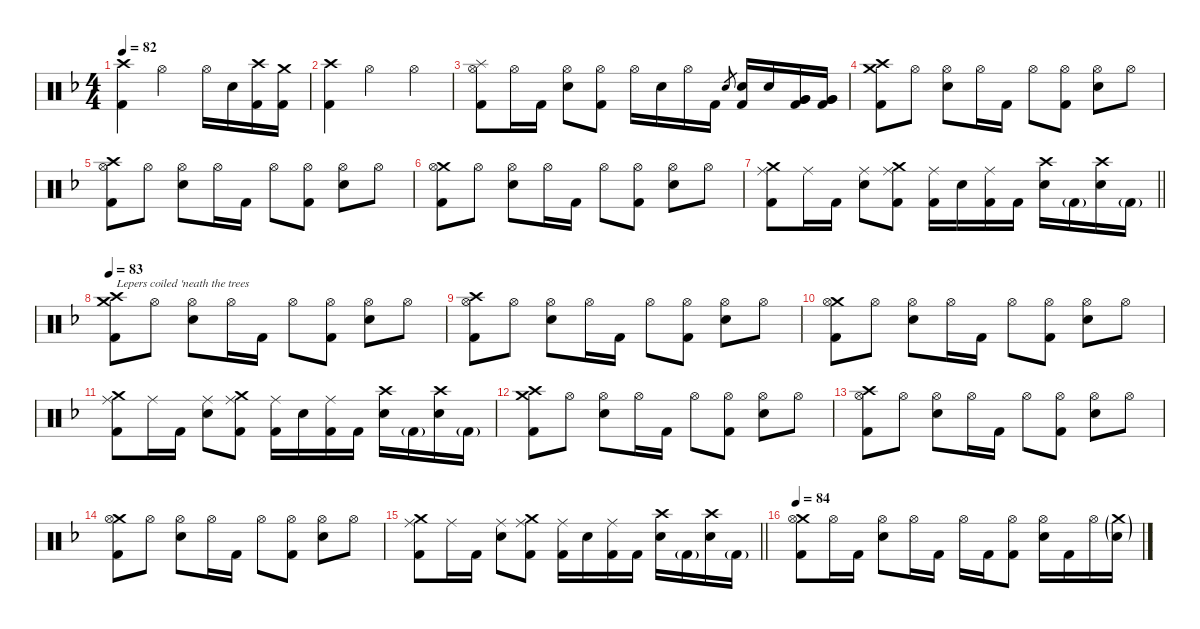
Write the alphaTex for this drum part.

\defaultSystemsLayout 4
\hideDynamics
\bracketExtendMode nobrackets
\singleTrackTrackNamePolicy hidden
\multiTrackTrackNamePolicy hidden
\otherSystemsTrackNameOrientation horizontal
\track ("Martin Lopez - Drums" "drm.") {defaultSystemsLayout 4 instrument percussion}
\staff {score}
\articulation defaults
\ts (4 4)
\tempo 82
\clef neutral
\ks dminor
("Crash high (hit)"{acc forcenatural} "Kick (hit) 2"{acc forcenatural}).4{dy f beam Down} "Hi-Hat (open)"{acc forcenatural}.2{beam Down} "Hi-Hat (open)"{acc forcenatural}.16{beam Down} "Snare (hit) 2"{acc forcenatural}.16{beam Down} ("Crash high (hit)"{acc forcenatural} "Kick (hit) 2"{acc forcenatural}).16{beam Down} ("Crash medium (hit)"{acc forcenatural} "Kick (hit) 2"{acc forcenatural}).16{beam Down} |
("Crash high (hit)"{acc forcenatural} "Kick (hit) 2"{acc forcenatural}).4{beam Down} "Hi-Hat (open)"{acc forcenatural}.2{beam Down} "Hi-Hat (open)"{acc forcenatural}.4{beam Down} |
("Splash (hit)"{acc forcenatural} "Hi-Hat (open)"{acc forcenatural} "Kick (hit) 2"{acc forcenatural}).8{beam Down} "Hi-Hat (open)"{acc forcenatural}.16{beam Down} "Kick (hit) 2"{acc forcenatural}.16{beam Down} ("Hi-Hat (open)"{acc forcenatural} "Snare (hit) 2"{acc forcenatural}).8{beam Down} ("Hi-Hat (open)"{acc forcenatural} "Kick (hit) 2"{acc forcenatural}).8{beam Down} "Hi-Hat (open)"{acc forcenatural}.16{beam Down} "Snare (hit) 2"{acc forcenatural}.16{beam Down} "Hi-Hat (open)"{acc forcenatural}.16{beam Down} "Kick (hit) 2"{acc forcenatural}.16{beam Down} "Electric Snare (hit)"{acc forcenatural}.8{gr dy mp beam Up} ("Snare (hit) 2"{acc forcenatural} "Kick (hit) 2"{acc forcenatural}).16{dy f beam Up} "Snare (hit) 2"{acc forcenatural}.16{beam Up} ("Very Low Tom (hit)"{acc forcenatural} "Very Low Tom (hit)"{acc forcenatural} "Kick (hit) 2"{acc forcenatural}).16{beam Up} ("Very Low Tom (hit)"{acc forcenatural} "Very Low Tom (hit)"{acc forcenatural} "Kick (hit) 2"{acc forcenatural}).16{beam Up} |
\tempo (82 hide)
("Crash high (hit)"{acc forcenatural} "Crash medium (hit)"{acc forcenatural} "Kick (hit) 2"{acc forcenatural}).8{beam Down} "Hi-Hat (open)"{acc forcenatural}.8{beam Down} ("Hi-Hat (open)"{acc forcenatural} "Snare (hit) 2"{acc forcenatural}).8{beam Down} "Hi-Hat (open)"{acc forcenatural}.16{beam Down} "Kick (hit) 2"{acc forcenatural}.16{beam Down} "Hi-Hat (open)"{acc forcenatural}.8{beam Down} ("Hi-Hat (open)"{acc forcenatural} "Kick (hit) 2"{acc forcenatural}).8{beam Down} ("Hi-Hat (open)"{acc forcenatural} "Snare (hit) 2"{acc forcenatural}).8{beam Down} "Hi-Hat (open)"{acc forcenatural}.8{beam Down} |
("Crash high (hit)"{acc forcenatural} "Hi-Hat (open)"{acc forcenatural} "Kick (hit) 2"{acc forcenatural}).8{beam Down} "Hi-Hat (open)"{acc forcenatural}.8{beam Down} ("Hi-Hat (open)"{acc forcenatural} "Snare (hit) 2"{acc forcenatural}).8{beam Down} "Hi-Hat (open)"{acc forcenatural}.16{beam Down} "Kick (hit) 2"{acc forcenatural}.16{beam Down} "Hi-Hat (open)"{acc forcenatural}.8{beam Down} ("Hi-Hat (open)"{acc forcenatural} "Kick (hit) 2"{acc forcenatural}).8{beam Down} ("Hi-Hat (open)"{acc forcenatural} "Snare (hit) 2"{acc forcenatural}).8{beam Down} "Hi-Hat (open)"{acc forcenatural}.8{beam Down} |
("Crash medium (hit)"{acc forcenatural} "Hi-Hat (open)"{acc forcenatural} "Kick (hit) 2"{acc forcenatural}).8{beam Down} "Hi-Hat (open)"{acc forcenatural}.8{beam Down} ("Hi-Hat (open)"{acc forcenatural} "Snare (hit) 2"{acc forcenatural}).8{beam Down} "Hi-Hat (open)"{acc forcenatural}.16{beam Down} "Kick (hit) 2"{acc forcenatural}.16{beam Down} "Hi-Hat (open)"{acc forcenatural}.8{beam Down} ("Hi-Hat (open)"{acc forcenatural} "Kick (hit) 2"{acc forcenatural}).8{beam Down} ("Hi-Hat (open)"{acc forcenatural} "Snare (hit) 2"{acc forcenatural}).8{beam Down} "Hi-Hat (open)"{acc forcenatural}.8{beam Down} |
\barLineRight lightlight
("Crash medium (hit)"{acc forcenatural} "Ride (middle)"{acc forcenatural} "Kick (hit) 2"{acc forcenatural}).8{beam Down} "Ride (middle)"{acc forcenatural}.16{beam Down} "Kick (hit) 2"{acc forcenatural}.16{beam Down} ("Ride (middle)"{acc forcenatural} "Snare (hit) 2"{acc forcenatural}).8{beam Down} ("Crash medium (hit)"{acc forcenatural} "Ride (middle)"{acc forcenatural} "Kick (hit) 2"{acc forcenatural}).8{beam Down} ("Ride (middle)"{acc forcenatural} "Kick (hit) 2"{acc forcenatural}).16{beam Down} "Snare (hit) 2"{acc forcenatural}.16{beam Down} ("Ride (middle)"{acc forcenatural} "Kick (hit) 2"{acc forcenatural}).16{beam Down} "Kick (hit) 2"{acc forcenatural}.16{beam Down} ("Crash high (hit)"{acc forcenatural} "Snare (hit) 2"{acc forcenatural}).16{beam Down} "Kick (hit) 2"{g acc forcenatural}.16{dy mf beam Down} ("Crash high (hit)"{acc forcenatural} "Snare (hit) 2"{acc forcenatural}).16{dy f beam Down} "Kick (hit) 2"{g acc forcenatural}.16{dy mf beam Down} |
\tempo 83
("Crash high (hit)"{acc forcenatural} "Crash medium (hit)"{acc forcenatural} "Kick (hit) 2"{acc forcenatural}).8{txt "Lepers coiled 'neath the trees" dy f beam Down} "Hi-Hat (open)"{acc forcenatural}.8{beam Down} ("Hi-Hat (open)"{acc forcenatural} "Snare (hit) 2"{acc forcenatural}).8{beam Down} "Hi-Hat (open)"{acc forcenatural}.16{beam Down} "Kick (hit) 2"{acc forcenatural}.16{beam Down} "Hi-Hat (open)"{acc forcenatural}.8{beam Down} ("Hi-Hat (open)"{acc forcenatural} "Kick (hit) 2"{acc forcenatural}).8{beam Down} ("Hi-Hat (open)"{acc forcenatural} "Snare (hit) 2"{acc forcenatural}).8{beam Down} "Hi-Hat (open)"{acc forcenatural}.8{beam Down} |
\tempo (82 hide)
("Crash high (hit)"{acc forcenatural} "Hi-Hat (open)"{acc forcenatural} "Kick (hit) 2"{acc forcenatural}).8{beam Down} "Hi-Hat (open)"{acc forcenatural}.8{beam Down} ("Hi-Hat (open)"{acc forcenatural} "Snare (hit) 2"{acc forcenatural}).8{beam Down} "Hi-Hat (open)"{acc forcenatural}.16{beam Down} "Kick (hit) 2"{acc forcenatural}.16{beam Down} "Hi-Hat (open)"{acc forcenatural}.8{beam Down} ("Hi-Hat (open)"{acc forcenatural} "Kick (hit) 2"{acc forcenatural}).8{beam Down} ("Hi-Hat (open)"{acc forcenatural} "Snare (hit) 2"{acc forcenatural}).8{beam Down} "Hi-Hat (open)"{acc forcenatural}.8{beam Down} |
\tempo (83 hide)
("Crash medium (hit)"{acc forcenatural} "Hi-Hat (open)"{acc forcenatural} "Kick (hit) 2"{acc forcenatural}).8{beam Down} "Hi-Hat (open)"{acc forcenatural}.8{beam Down} ("Hi-Hat (open)"{acc forcenatural} "Snare (hit) 2"{acc forcenatural}).8{beam Down} "Hi-Hat (open)"{acc forcenatural}.16{beam Down} "Kick (hit) 2"{acc forcenatural}.16{beam Down} "Hi-Hat (open)"{acc forcenatural}.8{beam Down} ("Hi-Hat (open)"{acc forcenatural} "Kick (hit) 2"{acc forcenatural}).8{beam Down} ("Hi-Hat (open)"{acc forcenatural} "Snare (hit) 2"{acc forcenatural}).8{beam Down} "Hi-Hat (open)"{acc forcenatural}.8{beam Down} |
\tempo (82 hide)
\tempo (83 0.99375 hide)
("Crash medium (hit)"{acc forcenatural} "Ride (middle)"{acc forcenatural} "Kick (hit) 2"{acc forcenatural}).8{beam Down} "Ride (middle)"{acc forcenatural}.16{beam Down} "Kick (hit) 2"{acc forcenatural}.16{beam Down} ("Ride (middle)"{acc forcenatural} "Snare (hit) 2"{acc forcenatural}).8{beam Down} ("Crash medium (hit)"{acc forcenatural} "Ride (middle)"{acc forcenatural} "Kick (hit) 2"{acc forcenatural}).8{beam Down} ("Ride (middle)"{acc forcenatural} "Kick (hit) 2"{acc forcenatural}).16{beam Down} "Snare (hit) 2"{acc forcenatural}.16{beam Down} ("Ride (middle)"{acc forcenatural} "Kick (hit) 2"{acc forcenatural}).16{beam Down} "Kick (hit) 2"{acc forcenatural}.16{beam Down} ("Crash high (hit)"{acc forcenatural} "Snare (hit) 2"{acc forcenatural}).16{beam Down} "Kick (hit) 2"{g acc forcenatural}.16{dy mf beam Down} ("Crash high (hit)"{acc forcenatural} "Snare (hit) 2"{acc forcenatural}).16{dy f beam Down} "Kick (hit) 2"{g acc forcenatural}.16{dy mf beam Down} |
("Crash high (hit)"{acc forcenatural} "Crash medium (hit)"{acc forcenatural} "Kick (hit) 2"{acc forcenatural}).8{dy f beam Down} "Hi-Hat (open)"{acc forcenatural}.8{beam Down} ("Hi-Hat (open)"{acc forcenatural} "Snare (hit) 2"{acc forcenatural}).8{beam Down} "Hi-Hat (open)"{acc forcenatural}.16{beam Down} "Kick (hit) 2"{acc forcenatural}.16{beam Down} "Hi-Hat (open)"{acc forcenatural}.8{beam Down} ("Hi-Hat (open)"{acc forcenatural} "Kick (hit) 2"{acc forcenatural}).8{beam Down} ("Hi-Hat (open)"{acc forcenatural} "Snare (hit) 2"{acc forcenatural}).8{beam Down} "Hi-Hat (open)"{acc forcenatural}.8{beam Down} |
\tempo (82 hide)
("Crash high (hit)"{acc forcenatural} "Hi-Hat (open)"{acc forcenatural} "Kick (hit) 2"{acc forcenatural}).8{beam Down} "Hi-Hat (open)"{acc forcenatural}.8{beam Down} ("Hi-Hat (open)"{acc forcenatural} "Snare (hit) 2"{acc forcenatural}).8{beam Down} "Hi-Hat (open)"{acc forcenatural}.16{beam Down} "Kick (hit) 2"{acc forcenatural}.16{beam Down} "Hi-Hat (open)"{acc forcenatural}.8{beam Down} ("Hi-Hat (open)"{acc forcenatural} "Kick (hit) 2"{acc forcenatural}).8{beam Down} ("Hi-Hat (open)"{acc forcenatural} "Snare (hit) 2"{acc forcenatural}).8{beam Down} "Hi-Hat (open)"{acc forcenatural}.8{beam Down} |
\tempo (83 hide)
("Crash medium (hit)"{acc forcenatural} "Hi-Hat (open)"{acc forcenatural} "Kick (hit) 2"{acc forcenatural}).8{beam Down} "Hi-Hat (open)"{acc forcenatural}.8{beam Down} ("Hi-Hat (open)"{acc forcenatural} "Snare (hit) 2"{acc forcenatural}).8{beam Down} "Hi-Hat (open)"{acc forcenatural}.16{beam Down} "Kick (hit) 2"{acc forcenatural}.16{beam Down} "Hi-Hat (open)"{acc forcenatural}.8{beam Down} ("Hi-Hat (open)"{acc forcenatural} "Kick (hit) 2"{acc forcenatural}).8{beam Down} ("Hi-Hat (open)"{acc forcenatural} "Snare (hit) 2"{acc forcenatural}).8{beam Down} "Hi-Hat (open)"{acc forcenatural}.8{beam Down} |
\tempo (82 hide)
\barLineRight lightlight
("Crash medium (hit)"{acc forcenatural} "Ride (middle)"{acc forcenatural} "Kick (hit) 2"{acc forcenatural}).8{beam Down} "Ride (middle)"{acc forcenatural}.16{beam Down} "Kick (hit) 2"{acc forcenatural}.16{beam Down} ("Ride (middle)"{acc forcenatural} "Snare (hit) 2"{acc forcenatural}).8{beam Down} ("Crash medium (hit)"{acc forcenatural} "Ride (middle)"{acc forcenatural} "Kick (hit) 2"{acc forcenatural}).8{beam Down} ("Ride (middle)"{acc forcenatural} "Kick (hit) 2"{acc forcenatural}).16{beam Down} "Snare (hit) 2"{acc forcenatural}.16{beam Down} ("Ride (middle)"{acc forcenatural} "Kick (hit) 2"{acc forcenatural}).16{beam Down} "Kick (hit) 2"{acc forcenatural}.16{beam Down} ("Crash high (hit)"{acc forcenatural} "Snare (hit) 2"{acc forcenatural}).16{beam Down} "Kick (hit) 2"{g acc forcenatural}.16{dy mf beam Down} ("Crash high (hit)"{acc forcenatural} "Snare (hit) 2"{acc forcenatural}).16{dy f beam Down} "Kick (hit) 2"{g acc forcenatural}.16{dy mf beam Down} |
\tempo 84
("Crash medium (hit)"{acc forcenatural} "Hi-Hat (open)"{acc forcenatural} "Kick (hit) 2"{acc forcenatural}).8{dy f beam Down} "Hi-Hat (open)"{acc forcenatural}.16{beam Down} "Kick (hit) 2"{acc forcenatural}.16{beam Down} ("Hi-Hat (open)"{acc forcenatural} "Snare (hit) 2"{acc forcenatural}).8{beam Down} "Hi-Hat (open)"{acc forcenatural}.16{beam Down} "Kick (hit) 2"{acc forcenatural}.16{beam Down} "Hi-Hat (open)"{acc forcenatural}.16{beam Down} "Kick (hit) 2"{acc forcenatural}.16{beam Down} ("Hi-Hat (open)"{acc forcenatural} "Kick (hit) 2"{acc forcenatural}).8{beam Down} ("Hi-Hat (open)"{acc forcenatural} "Snare (hit) 2"{acc forcenatural}).16{beam Down} "Kick (hit) 2"{acc forcenatural}.16{beam Down} "Hi-Hat (open)"{acc forcenatural}.16{beam Down} ("Crash medium (hit)"{g acc forcenatural} "Snare (hit) 2"{g acc forcenatural}).16{dy mf beam Down}
